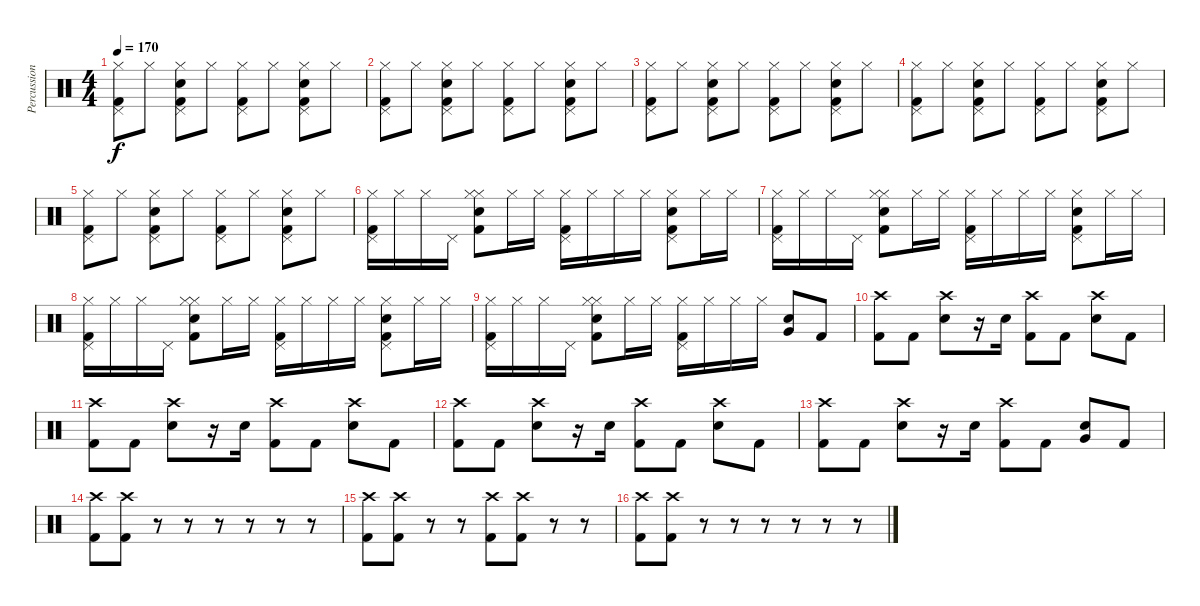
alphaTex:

\track ("Percussion" "Percussion") {instrument percussion}
\staff {score}
\articulation defaults
\ts (4 4)
\tempo 170
\clef neutral
\ks c
("Pedal Hi-Hat (hit)" "Kick (hit) 2" "Hi-Hat (closed)").8{dy f} "Hi-Hat (closed)".8 ("Electric Snare (hit)" "Pedal Hi-Hat (hit)" "Kick (hit) 2" "Hi-Hat (closed)").8 "Hi-Hat (closed)".8 ("Pedal Hi-Hat (hit)" "Kick (hit) 2" "Hi-Hat (closed)").8 "Hi-Hat (closed)".8 ("Electric Snare (hit)" "Pedal Hi-Hat (hit)" "Kick (hit) 2" "Hi-Hat (closed)").8 "Hi-Hat (closed)".8 |
("Pedal Hi-Hat (hit)" "Kick (hit) 2" "Hi-Hat (closed)").8 "Hi-Hat (closed)".8 ("Electric Snare (hit)" "Pedal Hi-Hat (hit)" "Kick (hit) 2" "Hi-Hat (closed)").8 "Hi-Hat (closed)".8 ("Pedal Hi-Hat (hit)" "Kick (hit) 2" "Hi-Hat (closed)").8 "Hi-Hat (closed)".8 ("Electric Snare (hit)" "Pedal Hi-Hat (hit)" "Kick (hit) 2" "Hi-Hat (closed)").8 "Hi-Hat (closed)".8 |
("Pedal Hi-Hat (hit)" "Kick (hit) 2" "Hi-Hat (closed)").8 "Hi-Hat (closed)".8 ("Electric Snare (hit)" "Pedal Hi-Hat (hit)" "Kick (hit) 2" "Hi-Hat (closed)").8 "Hi-Hat (closed)".8 ("Pedal Hi-Hat (hit)" "Kick (hit) 2" "Hi-Hat (closed)").8 "Hi-Hat (closed)".8 ("Electric Snare (hit)" "Pedal Hi-Hat (hit)" "Kick (hit) 2" "Hi-Hat (closed)").8 "Hi-Hat (closed)".8 |
("Pedal Hi-Hat (hit)" "Kick (hit) 2" "Hi-Hat (closed)").8 "Hi-Hat (closed)".8 ("Electric Snare (hit)" "Pedal Hi-Hat (hit)" "Kick (hit) 2" "Hi-Hat (closed)").8 "Hi-Hat (closed)".8 ("Pedal Hi-Hat (hit)" "Kick (hit) 2" "Hi-Hat (closed)").8 "Hi-Hat (closed)".8 ("Electric Snare (hit)" "Pedal Hi-Hat (hit)" "Kick (hit) 2" "Hi-Hat (closed)").8 "Hi-Hat (closed)".8 |
("Pedal Hi-Hat (hit)" "Kick (hit) 2" "Hi-Hat (closed)").8 "Hi-Hat (closed)".8 ("Electric Snare (hit)" "Pedal Hi-Hat (hit)" "Kick (hit) 2" "Hi-Hat (closed)").8 "Hi-Hat (closed)".8 ("Pedal Hi-Hat (hit)" "Kick (hit) 2" "Hi-Hat (closed)").8 "Hi-Hat (closed)".8 ("Electric Snare (hit)" "Pedal Hi-Hat (hit)" "Kick (hit) 2" "Hi-Hat (closed)").8 "Hi-Hat (closed)".8 |
("Pedal Hi-Hat (hit)" "Kick (hit) 2" "Hi-Hat (closed)").16 "Hi-Hat (closed)".16 "Hi-Hat (closed)".16 "Pedal Hi-Hat (hit)".16 ("Electric Snare (hit)" "Hi-Hat (closed)" "Kick (hit) 2" "Hi-Hat (closed)").8 "Hi-Hat (closed)".16 "Hi-Hat (closed)".16 ("Pedal Hi-Hat (hit)" "Kick (hit) 2" "Hi-Hat (closed)").16 "Hi-Hat (closed)".16 "Hi-Hat (closed)".16 "Hi-Hat (closed)".16 ("Electric Snare (hit)" "Pedal Hi-Hat (hit)" "Kick (hit) 2" "Hi-Hat (closed)").8 "Hi-Hat (closed)".16 "Hi-Hat (closed)".16 |
("Pedal Hi-Hat (hit)" "Kick (hit) 2" "Hi-Hat (closed)").16 "Hi-Hat (closed)".16 "Hi-Hat (closed)".16 "Pedal Hi-Hat (hit)".16 ("Electric Snare (hit)" "Hi-Hat (closed)" "Kick (hit) 2" "Hi-Hat (closed)").8 "Hi-Hat (closed)".16 "Hi-Hat (closed)".16 ("Pedal Hi-Hat (hit)" "Kick (hit) 2" "Hi-Hat (closed)").16 "Hi-Hat (closed)".16 "Hi-Hat (closed)".16 "Hi-Hat (closed)".16 ("Electric Snare (hit)" "Pedal Hi-Hat (hit)" "Kick (hit) 2" "Hi-Hat (closed)").8 "Hi-Hat (closed)".16 "Hi-Hat (closed)".16 |
("Pedal Hi-Hat (hit)" "Kick (hit) 2" "Hi-Hat (closed)").16 "Hi-Hat (closed)".16 "Hi-Hat (closed)".16 "Pedal Hi-Hat (hit)".16 ("Electric Snare (hit)" "Hi-Hat (closed)" "Kick (hit) 2" "Hi-Hat (closed)").8 "Hi-Hat (closed)".16 "Hi-Hat (closed)".16 ("Pedal Hi-Hat (hit)" "Kick (hit) 2" "Hi-Hat (closed)").16 "Hi-Hat (closed)".16 "Hi-Hat (closed)".16 "Hi-Hat (closed)".16 ("Electric Snare (hit)" "Pedal Hi-Hat (hit)" "Kick (hit) 2" "Hi-Hat (closed)").8 "Hi-Hat (closed)".16 "Hi-Hat (closed)".16 |
("Pedal Hi-Hat (hit)" "Kick (hit) 2" "Hi-Hat (closed)").16 "Hi-Hat (closed)".16 "Hi-Hat (closed)".16 "Pedal Hi-Hat (hit)".16 ("Electric Snare (hit)" "Hi-Hat (closed)" "Kick (hit) 2" "Hi-Hat (closed)").8 "Hi-Hat (closed)".16 "Hi-Hat (closed)".16 ("Pedal Hi-Hat (hit)" "Kick (hit) 2" "Hi-Hat (closed)").16 "Hi-Hat (closed)".16 "Hi-Hat (closed)".16 "Hi-Hat (closed)".16 ("Very Low Tom (hit)" "Electric Snare (hit)").8 "Kick (hit) 2".8 |
("Crash high (hit)" "Kick (hit) 2").8 "Kick (hit) 2".8 ("Crash high (hit)" "Electric Snare (hit)").8 r.16 "Electric Snare (hit)".16 ("Crash high (hit)" "Kick (hit) 2").8 "Kick (hit) 2".8 ("Crash high (hit)" "Electric Snare (hit)").8 "Kick (hit) 2".8 |
("Crash high (hit)" "Kick (hit) 2").8 "Kick (hit) 2".8 ("Crash high (hit)" "Electric Snare (hit)").8 r.16 "Electric Snare (hit)".16 ("Crash high (hit)" "Kick (hit) 2").8 "Kick (hit) 2".8 ("Crash high (hit)" "Electric Snare (hit)").8 "Kick (hit) 2".8 |
("Crash high (hit)" "Kick (hit) 2").8 "Kick (hit) 2".8 ("Crash high (hit)" "Electric Snare (hit)").8 r.16 "Electric Snare (hit)".16 ("Crash high (hit)" "Kick (hit) 2").8 "Kick (hit) 2".8 ("Crash high (hit)" "Electric Snare (hit)").8 "Kick (hit) 2".8 |
("Crash high (hit)" "Kick (hit) 2").8 "Kick (hit) 2".8 ("Crash high (hit)" "Electric Snare (hit)").8 r.16 "Electric Snare (hit)".16 ("Crash high (hit)" "Kick (hit) 2").8 "Kick (hit) 2".8 ("Very Low Tom (hit)" "Electric Snare (hit)").8 "Kick (hit) 2".8 |
("Crash high (hit)" "Kick (hit) 2").8 ("Crash high (hit)" "Kick (hit) 2").8 r.8 r.8 r.8 r.8 r.8 r.8 |
("Crash high (hit)" "Kick (hit) 2").8 ("Crash high (hit)" "Kick (hit) 2").8 r.8 r.8 ("Crash high (hit)" "Kick (hit) 2").8 ("Crash high (hit)" "Kick (hit) 2").8 r.8 r.8 |
("Crash high (hit)" "Kick (hit) 2").8 ("Crash high (hit)" "Kick (hit) 2").8 r.8 r.8 r.8 r.8 r.8 r.8
